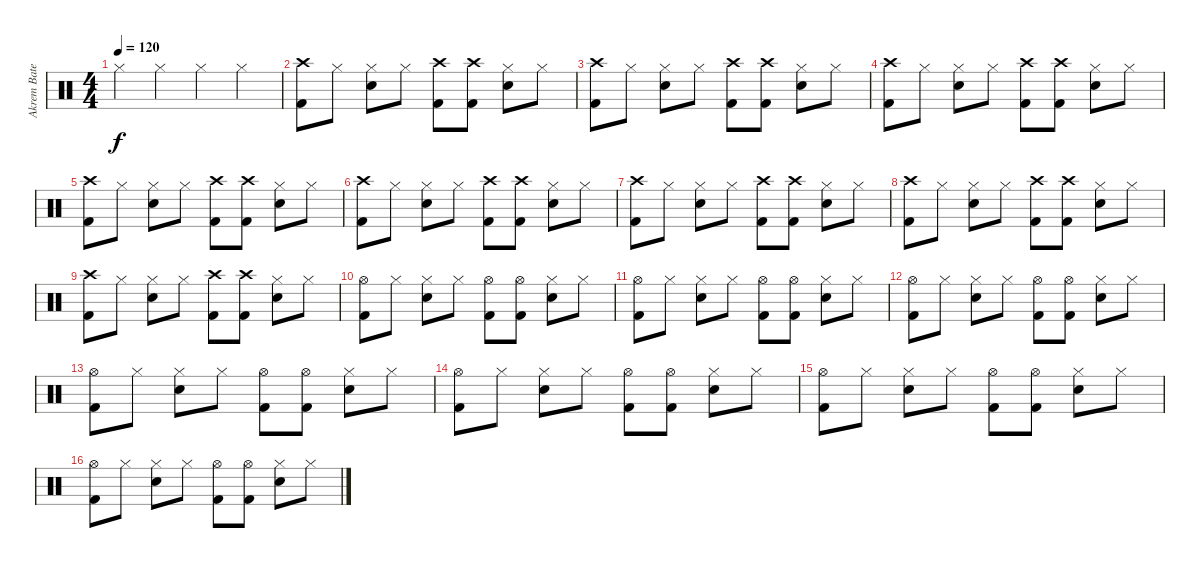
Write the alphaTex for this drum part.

\track ("Akrem Baterie" "Akrem Bate") {instrument percussion}
\staff {score}
\articulation defaults
\ts (4 4)
\tempo 120
\clef neutral
\ks c "Hi-Hat (closed)".4{dy f} "Hi-Hat (closed)".4 "Hi-Hat (closed)".4 "Hi-Hat (closed)".4
|
("Crash high (hit)" "Kick (hit) 2").8 "Hi-Hat (closed)".8 ("Hi-Hat (closed)" "Electric Snare (hit)").8 "Hi-Hat (closed)".8 ("Crash high (hit)" "Kick (hit) 2").8 ("Crash high (hit)" "Kick (hit) 2").8 ("Hi-Hat (closed)" "Electric Snare (hit)").8 "Hi-Hat (closed)".8 |
("Crash high (hit)" "Kick (hit) 2").8 "Hi-Hat (closed)".8 ("Hi-Hat (closed)" "Electric Snare (hit)").8 "Hi-Hat (closed)".8 ("Crash high (hit)" "Kick (hit) 2").8 ("Crash high (hit)" "Kick (hit) 2").8 ("Hi-Hat (closed)" "Electric Snare (hit)").8 "Hi-Hat (closed)".8 |
("Crash high (hit)" "Kick (hit) 2").8 "Hi-Hat (closed)".8 ("Hi-Hat (closed)" "Electric Snare (hit)").8 "Hi-Hat (closed)".8 ("Crash high (hit)" "Kick (hit) 2").8 ("Crash high (hit)" "Kick (hit) 2").8 ("Hi-Hat (closed)" "Electric Snare (hit)").8 "Hi-Hat (closed)".8 |
("Crash high (hit)" "Kick (hit) 2").8 "Hi-Hat (closed)".8 ("Hi-Hat (closed)" "Electric Snare (hit)").8 "Hi-Hat (closed)".8 ("Crash high (hit)" "Kick (hit) 2").8 ("Crash high (hit)" "Kick (hit) 2").8 ("Hi-Hat (closed)" "Electric Snare (hit)").8 "Hi-Hat (closed)".8 |
("Crash high (hit)" "Kick (hit) 2").8 "Hi-Hat (closed)".8 ("Hi-Hat (closed)" "Electric Snare (hit)").8 "Hi-Hat (closed)".8 ("Crash high (hit)" "Kick (hit) 2").8 ("Crash high (hit)" "Kick (hit) 2").8 ("Hi-Hat (closed)" "Electric Snare (hit)").8 "Hi-Hat (closed)".8 |
("Crash high (hit)" "Kick (hit) 2").8 "Hi-Hat (closed)".8 ("Hi-Hat (closed)" "Electric Snare (hit)").8 "Hi-Hat (closed)".8 ("Crash high (hit)" "Kick (hit) 2").8 ("Crash high (hit)" "Kick (hit) 2").8 ("Hi-Hat (closed)" "Electric Snare (hit)").8 "Hi-Hat (closed)".8 |
("Crash high (hit)" "Kick (hit) 2").8 "Hi-Hat (closed)".8 ("Hi-Hat (closed)" "Electric Snare (hit)").8 "Hi-Hat (closed)".8 ("Crash high (hit)" "Kick (hit) 2").8 ("Crash high (hit)" "Kick (hit) 2").8 ("Hi-Hat (closed)" "Electric Snare (hit)").8 "Hi-Hat (closed)".8 |
("Crash high (hit)" "Kick (hit) 2").8 "Hi-Hat (closed)".8 ("Hi-Hat (closed)" "Electric Snare (hit)").8 "Hi-Hat (closed)".8 ("Crash high (hit)" "Kick (hit) 2").8 ("Crash high (hit)" "Kick (hit) 2").8 ("Hi-Hat (closed)" "Electric Snare (hit)").8 "Hi-Hat (closed)".8 |
("Hi-Hat (open)" "Kick (hit) 2").8 "Hi-Hat (closed)".8 ("Hi-Hat (closed)" "Electric Snare (hit)").8 "Hi-Hat (closed)".8 ("Hi-Hat (open)" "Kick (hit) 2").8 ("Hi-Hat (open)" "Kick (hit) 2").8 ("Hi-Hat (closed)" "Electric Snare (hit)").8 "Hi-Hat (closed)".8 |
("Hi-Hat (open)" "Kick (hit) 2").8 "Hi-Hat (closed)".8 ("Hi-Hat (closed)" "Electric Snare (hit)").8 "Hi-Hat (closed)".8 ("Hi-Hat (open)" "Kick (hit) 2").8 ("Hi-Hat (open)" "Kick (hit) 2").8 ("Hi-Hat (closed)" "Electric Snare (hit)").8 "Hi-Hat (closed)".8 |
("Hi-Hat (open)" "Kick (hit) 2").8 "Hi-Hat (closed)".8 ("Hi-Hat (closed)" "Electric Snare (hit)").8 "Hi-Hat (closed)".8 ("Hi-Hat (open)" "Kick (hit) 2").8 ("Hi-Hat (open)" "Kick (hit) 2").8 ("Hi-Hat (closed)" "Electric Snare (hit)").8 "Hi-Hat (closed)".8 |
("Hi-Hat (open)" "Kick (hit) 2").8 "Hi-Hat (closed)".8 ("Hi-Hat (closed)" "Electric Snare (hit)").8 "Hi-Hat (closed)".8 ("Hi-Hat (open)" "Kick (hit) 2").8 ("Hi-Hat (open)" "Kick (hit) 2").8 ("Hi-Hat (closed)" "Electric Snare (hit)").8 "Hi-Hat (closed)".8 |
("Hi-Hat (open)" "Kick (hit) 2").8 "Hi-Hat (closed)".8 ("Hi-Hat (closed)" "Electric Snare (hit)").8 "Hi-Hat (closed)".8 ("Hi-Hat (open)" "Kick (hit) 2").8 ("Hi-Hat (open)" "Kick (hit) 2").8 ("Hi-Hat (closed)" "Electric Snare (hit)").8 "Hi-Hat (closed)".8 |
("Hi-Hat (open)" "Kick (hit) 2").8 "Hi-Hat (closed)".8 ("Hi-Hat (closed)" "Electric Snare (hit)").8 "Hi-Hat (closed)".8 ("Hi-Hat (open)" "Kick (hit) 2").8 ("Hi-Hat (open)" "Kick (hit) 2").8 ("Hi-Hat (closed)" "Electric Snare (hit)").8 "Hi-Hat (closed)".8 |
("Hi-Hat (open)" "Kick (hit) 2").8 "Hi-Hat (closed)".8 ("Hi-Hat (closed)" "Electric Snare (hit)").8 "Hi-Hat (closed)".8 ("Hi-Hat (open)" "Kick (hit) 2").8 ("Hi-Hat (open)" "Kick (hit) 2").8 ("Hi-Hat (closed)" "Electric Snare (hit)").8 "Hi-Hat (closed)".8
